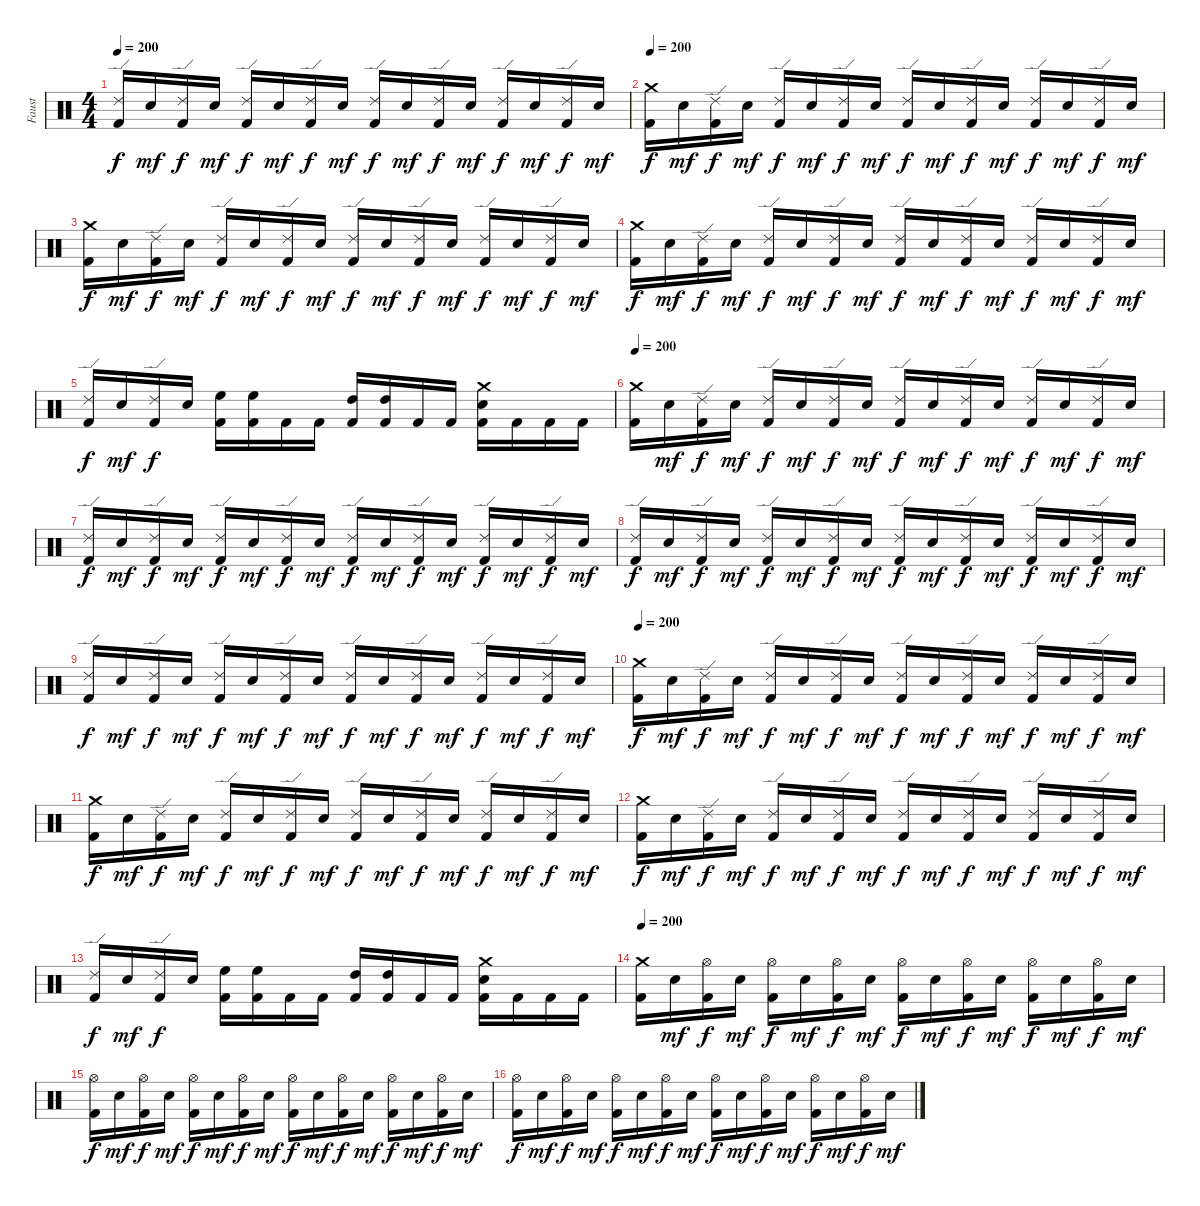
\track ("Faust" "Faust") {instrument percussion}
\staff {score}
\articulation defaults
\ts (4 4)
\tempo 200
\clef neutral
\ks c
("Ride (edge) 2" "Kick (hit) 2").16{dy f} "Electric Snare (hit)".16{dy mf} ("Ride (edge) 2" "Kick (hit) 2").16{dy f} "Electric Snare (hit)".16{dy mf} ("Ride (edge) 2" "Kick (hit) 2").16{dy f} "Electric Snare (hit)".16{dy mf} ("Ride (edge) 2" "Kick (hit) 2").16{dy f} "Electric Snare (hit)".16{dy mf} ("Ride (edge) 2" "Kick (hit) 2").16{dy f} "Electric Snare (hit)".16{dy mf} ("Ride (edge) 2" "Kick (hit) 2").16{dy f} "Electric Snare (hit)".16{dy mf} ("Ride (edge) 2" "Kick (hit) 2").16{dy f} "Electric Snare (hit)".16{dy mf} ("Ride (edge) 2" "Kick (hit) 2").16{dy f} "Electric Snare (hit)".16{dy mf} |
\tempo 200
("Crash medium (hit)" "Kick (hit) 2").16{dy f} "Electric Snare (hit)".16{dy mf} ("Ride (edge) 2" "Kick (hit) 2").16{dy f} "Electric Snare (hit)".16{dy mf} ("Ride (edge) 2" "Kick (hit) 2").16{dy f} "Electric Snare (hit)".16{dy mf} ("Ride (edge) 2" "Kick (hit) 2").16{dy f} "Electric Snare (hit)".16{dy mf} ("Ride (edge) 2" "Kick (hit) 2").16{dy f} "Electric Snare (hit)".16{dy mf} ("Ride (edge) 2" "Kick (hit) 2").16{dy f} "Electric Snare (hit)".16{dy mf} ("Ride (edge) 2" "Kick (hit) 2").16{dy f} "Electric Snare (hit)".16{dy mf} ("Ride (edge) 2" "Kick (hit) 2").16{dy f} "Electric Snare (hit)".16{dy mf} |
("Crash medium (hit)" "Kick (hit) 2").16{dy f} "Electric Snare (hit)".16{dy mf} ("Ride (edge) 2" "Kick (hit) 2").16{dy f} "Electric Snare (hit)".16{dy mf} ("Ride (edge) 2" "Kick (hit) 2").16{dy f} "Electric Snare (hit)".16{dy mf} ("Ride (edge) 2" "Kick (hit) 2").16{dy f} "Electric Snare (hit)".16{dy mf} ("Ride (edge) 2" "Kick (hit) 2").16{dy f} "Electric Snare (hit)".16{dy mf} ("Ride (edge) 2" "Kick (hit) 2").16{dy f} "Electric Snare (hit)".16{dy mf} ("Ride (edge) 2" "Kick (hit) 2").16{dy f} "Electric Snare (hit)".16{dy mf} ("Ride (edge) 2" "Kick (hit) 2").16{dy f} "Electric Snare (hit)".16{dy mf} |
("Crash medium (hit)" "Kick (hit) 2").16{dy f} "Electric Snare (hit)".16{dy mf} ("Ride (edge) 2" "Kick (hit) 2").16{dy f} "Electric Snare (hit)".16{dy mf} ("Ride (edge) 2" "Kick (hit) 2").16{dy f} "Electric Snare (hit)".16{dy mf} ("Ride (edge) 2" "Kick (hit) 2").16{dy f} "Electric Snare (hit)".16{dy mf} ("Ride (edge) 2" "Kick (hit) 2").16{dy f} "Electric Snare (hit)".16{dy mf} ("Ride (edge) 2" "Kick (hit) 2").16{dy f} "Electric Snare (hit)".16{dy mf} ("Ride (edge) 2" "Kick (hit) 2").16{dy f} "Electric Snare (hit)".16{dy mf} ("Ride (edge) 2" "Kick (hit) 2").16{dy f} "Electric Snare (hit)".16{dy mf} |
("Ride (edge) 2" "Kick (hit) 2").16{dy f} "Electric Snare (hit)".16{dy mf} ("Ride (edge) 2" "Kick (hit) 2").16{dy f} "Electric Snare (hit)".16 ("High Floor Tom (hit)" "Kick (hit) 2").16 ("High Floor Tom (hit)" "Kick (hit) 2").16 "Kick (hit) 2".16 "Kick (hit) 2".16 ("High Tom (hit)" "Kick (hit) 2").16 ("High Tom (hit)" "Kick (hit) 2").16 "Kick (hit) 2".16 "Kick (hit) 2".16 ("Crash medium (hit)" "Electric Snare (hit)" "Kick (hit) 2").16 "Kick (hit) 2".16 "Kick (hit) 2".16 "Kick (hit) 2".16 |
\tempo 200
("Crash medium (hit)" "Kick (hit) 2").16 "Electric Snare (hit)".16{dy mf} ("Ride (edge) 2" "Kick (hit) 2").16{dy f} "Electric Snare (hit)".16{dy mf} ("Ride (edge) 2" "Kick (hit) 2").16{dy f} "Electric Snare (hit)".16{dy mf} ("Ride (edge) 2" "Kick (hit) 2").16{dy f} "Electric Snare (hit)".16{dy mf} ("Ride (edge) 2" "Kick (hit) 2").16{dy f} "Electric Snare (hit)".16{dy mf} ("Ride (edge) 2" "Kick (hit) 2").16{dy f} "Electric Snare (hit)".16{dy mf} ("Ride (edge) 2" "Kick (hit) 2").16{dy f} "Electric Snare (hit)".16{dy mf} ("Ride (edge) 2" "Kick (hit) 2").16{dy f} "Electric Snare (hit)".16{dy mf} |
("Ride (edge) 2" "Kick (hit) 2").16{dy f} "Electric Snare (hit)".16{dy mf} ("Ride (edge) 2" "Kick (hit) 2").16{dy f} "Electric Snare (hit)".16{dy mf} ("Ride (edge) 2" "Kick (hit) 2").16{dy f} "Electric Snare (hit)".16{dy mf} ("Ride (edge) 2" "Kick (hit) 2").16{dy f} "Electric Snare (hit)".16{dy mf} ("Ride (edge) 2" "Kick (hit) 2").16{dy f} "Electric Snare (hit)".16{dy mf} ("Ride (edge) 2" "Kick (hit) 2").16{dy f} "Electric Snare (hit)".16{dy mf} ("Ride (edge) 2" "Kick (hit) 2").16{dy f} "Electric Snare (hit)".16{dy mf} ("Ride (edge) 2" "Kick (hit) 2").16{dy f} "Electric Snare (hit)".16{dy mf} |
("Ride (edge) 2" "Kick (hit) 2").16{dy f} "Electric Snare (hit)".16{dy mf} ("Ride (edge) 2" "Kick (hit) 2").16{dy f} "Electric Snare (hit)".16{dy mf} ("Ride (edge) 2" "Kick (hit) 2").16{dy f} "Electric Snare (hit)".16{dy mf} ("Ride (edge) 2" "Kick (hit) 2").16{dy f} "Electric Snare (hit)".16{dy mf} ("Ride (edge) 2" "Kick (hit) 2").16{dy f} "Electric Snare (hit)".16{dy mf} ("Ride (edge) 2" "Kick (hit) 2").16{dy f} "Electric Snare (hit)".16{dy mf} ("Ride (edge) 2" "Kick (hit) 2").16{dy f} "Electric Snare (hit)".16{dy mf} ("Ride (edge) 2" "Kick (hit) 2").16{dy f} "Electric Snare (hit)".16{dy mf} |
("Ride (edge) 2" "Kick (hit) 2").16{dy f} "Electric Snare (hit)".16{dy mf} ("Ride (edge) 2" "Kick (hit) 2").16{dy f} "Electric Snare (hit)".16{dy mf} ("Ride (edge) 2" "Kick (hit) 2").16{dy f} "Electric Snare (hit)".16{dy mf} ("Ride (edge) 2" "Kick (hit) 2").16{dy f} "Electric Snare (hit)".16{dy mf} ("Ride (edge) 2" "Kick (hit) 2").16{dy f} "Electric Snare (hit)".16{dy mf} ("Ride (edge) 2" "Kick (hit) 2").16{dy f} "Electric Snare (hit)".16{dy mf} ("Ride (edge) 2" "Kick (hit) 2").16{dy f} "Electric Snare (hit)".16{dy mf} ("Ride (edge) 2" "Kick (hit) 2").16{dy f} "Electric Snare (hit)".16{dy mf} |
\tempo 200
("Crash medium (hit)" "Kick (hit) 2").16{dy f} "Electric Snare (hit)".16{dy mf} ("Ride (edge) 2" "Kick (hit) 2").16{dy f} "Electric Snare (hit)".16{dy mf} ("Ride (edge) 2" "Kick (hit) 2").16{dy f} "Electric Snare (hit)".16{dy mf} ("Ride (edge) 2" "Kick (hit) 2").16{dy f} "Electric Snare (hit)".16{dy mf} ("Ride (edge) 2" "Kick (hit) 2").16{dy f} "Electric Snare (hit)".16{dy mf} ("Ride (edge) 2" "Kick (hit) 2").16{dy f} "Electric Snare (hit)".16{dy mf} ("Ride (edge) 2" "Kick (hit) 2").16{dy f} "Electric Snare (hit)".16{dy mf} ("Ride (edge) 2" "Kick (hit) 2").16{dy f} "Electric Snare (hit)".16{dy mf} |
("Crash medium (hit)" "Kick (hit) 2").16{dy f} "Electric Snare (hit)".16{dy mf} ("Ride (edge) 2" "Kick (hit) 2").16{dy f} "Electric Snare (hit)".16{dy mf} ("Ride (edge) 2" "Kick (hit) 2").16{dy f} "Electric Snare (hit)".16{dy mf} ("Ride (edge) 2" "Kick (hit) 2").16{dy f} "Electric Snare (hit)".16{dy mf} ("Ride (edge) 2" "Kick (hit) 2").16{dy f} "Electric Snare (hit)".16{dy mf} ("Ride (edge) 2" "Kick (hit) 2").16{dy f} "Electric Snare (hit)".16{dy mf} ("Ride (edge) 2" "Kick (hit) 2").16{dy f} "Electric Snare (hit)".16{dy mf} ("Ride (edge) 2" "Kick (hit) 2").16{dy f} "Electric Snare (hit)".16{dy mf} |
("Crash medium (hit)" "Kick (hit) 2").16{dy f} "Electric Snare (hit)".16{dy mf} ("Ride (edge) 2" "Kick (hit) 2").16{dy f} "Electric Snare (hit)".16{dy mf} ("Ride (edge) 2" "Kick (hit) 2").16{dy f} "Electric Snare (hit)".16{dy mf} ("Ride (edge) 2" "Kick (hit) 2").16{dy f} "Electric Snare (hit)".16{dy mf} ("Ride (edge) 2" "Kick (hit) 2").16{dy f} "Electric Snare (hit)".16{dy mf} ("Ride (edge) 2" "Kick (hit) 2").16{dy f} "Electric Snare (hit)".16{dy mf} ("Ride (edge) 2" "Kick (hit) 2").16{dy f} "Electric Snare (hit)".16{dy mf} ("Ride (edge) 2" "Kick (hit) 2").16{dy f} "Electric Snare (hit)".16{dy mf} |
("Ride (edge) 2" "Kick (hit) 2").16{dy f} "Electric Snare (hit)".16{dy mf} ("Ride (edge) 2" "Kick (hit) 2").16{dy f} "Electric Snare (hit)".16 ("High Floor Tom (hit)" "Kick (hit) 2").16 ("High Floor Tom (hit)" "Kick (hit) 2").16 "Kick (hit) 2".16 "Kick (hit) 2".16 ("High Tom (hit)" "Kick (hit) 2").16 ("High Tom (hit)" "Kick (hit) 2").16 "Kick (hit) 2".16 "Kick (hit) 2".16 ("Crash medium (hit)" "Electric Snare (hit)" "Kick (hit) 2").16 "Kick (hit) 2".16 "Kick (hit) 2".16 "Kick (hit) 2".16 |
\tempo 200
("Crash medium (hit)" "Kick (hit) 2").16 "Electric Snare (hit)".16{dy mf} ("Hi-Hat (open)" "Kick (hit) 2").16{dy f} "Electric Snare (hit)".16{dy mf} ("Hi-Hat (open)" "Kick (hit) 2").16{dy f} "Electric Snare (hit)".16{dy mf} ("Hi-Hat (open)" "Kick (hit) 2").16{dy f} "Electric Snare (hit)".16{dy mf} ("Hi-Hat (open)" "Kick (hit) 2").16{dy f} "Electric Snare (hit)".16{dy mf} ("Hi-Hat (open)" "Kick (hit) 2").16{dy f} "Electric Snare (hit)".16{dy mf} ("Hi-Hat (open)" "Kick (hit) 2").16{dy f} "Electric Snare (hit)".16{dy mf} ("Hi-Hat (open)" "Kick (hit) 2").16{dy f} "Electric Snare (hit)".16{dy mf} |
("Hi-Hat (open)" "Kick (hit) 2").16{dy f} "Electric Snare (hit)".16{dy mf} ("Hi-Hat (open)" "Kick (hit) 2").16{dy f} "Electric Snare (hit)".16{dy mf} ("Hi-Hat (open)" "Kick (hit) 2").16{dy f} "Electric Snare (hit)".16{dy mf} ("Hi-Hat (open)" "Kick (hit) 2").16{dy f} "Electric Snare (hit)".16{dy mf} ("Hi-Hat (open)" "Kick (hit) 2").16{dy f} "Electric Snare (hit)".16{dy mf} ("Hi-Hat (open)" "Kick (hit) 2").16{dy f} "Electric Snare (hit)".16{dy mf} ("Hi-Hat (open)" "Kick (hit) 2").16{dy f} "Electric Snare (hit)".16{dy mf} ("Hi-Hat (open)" "Kick (hit) 2").16{dy f} "Electric Snare (hit)".16{dy mf} |
("Hi-Hat (open)" "Kick (hit) 2").16{dy f} "Electric Snare (hit)".16{dy mf} ("Hi-Hat (open)" "Kick (hit) 2").16{dy f} "Electric Snare (hit)".16{dy mf} ("Hi-Hat (open)" "Kick (hit) 2").16{dy f} "Electric Snare (hit)".16{dy mf} ("Hi-Hat (open)" "Kick (hit) 2").16{dy f} "Electric Snare (hit)".16{dy mf} ("Hi-Hat (open)" "Kick (hit) 2").16{dy f} "Electric Snare (hit)".16{dy mf} ("Hi-Hat (open)" "Kick (hit) 2").16{dy f} "Electric Snare (hit)".16{dy mf} ("Hi-Hat (open)" "Kick (hit) 2").16{dy f} "Electric Snare (hit)".16{dy mf} ("Hi-Hat (open)" "Kick (hit) 2").16{dy f} "Electric Snare (hit)".16{dy mf}
